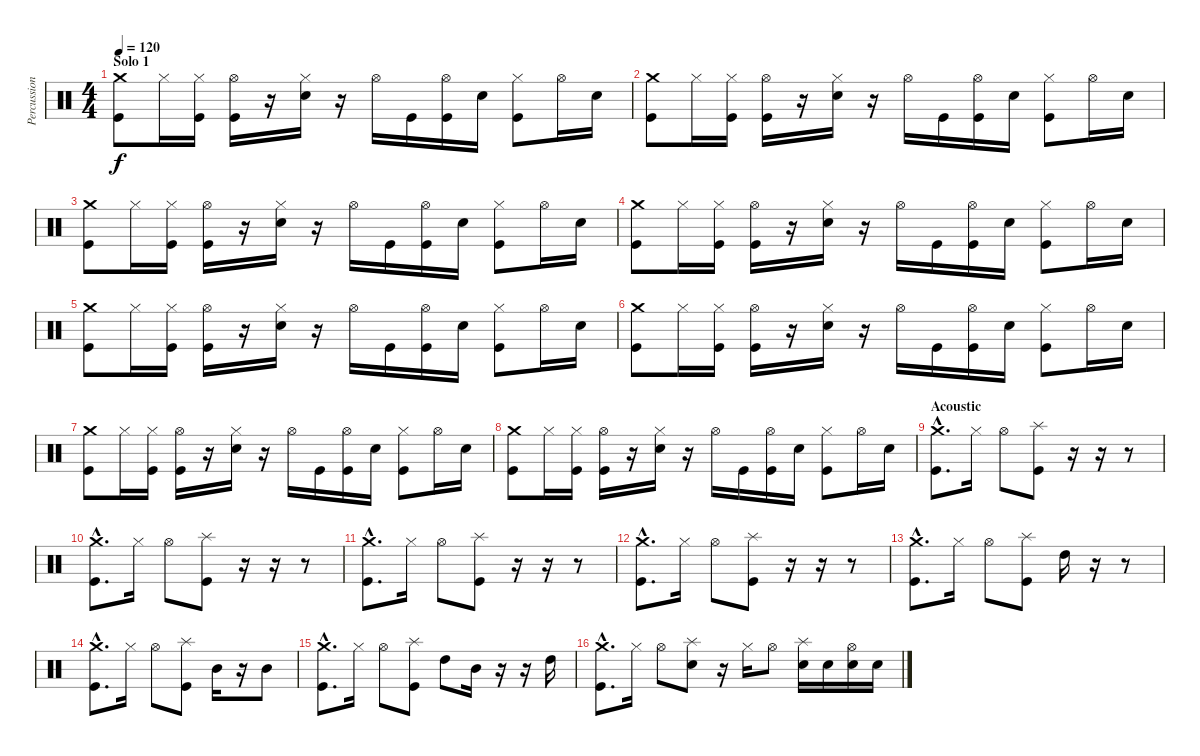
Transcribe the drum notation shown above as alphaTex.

\track ("Percussions" "Percussion") {instrument percussion}
\staff {score}
\articulation defaults
\ts (4 4)
\section ("" "Solo 1")
\tempo 120
\clef neutral
\ks c
("Crash medium (hit)" "Kick (hit)").8{dy f} "Hi-Hat (closed)".16 ("Hi-Hat (closed)" "Kick (hit)").16 ("Hi-Hat (open)" "Kick (hit)").16 r.16 ("Hi-Hat (closed)" "Electric Snare (hit)").16 r.16 "Hi-Hat (open)".16 "Kick (hit)".16 ("Hi-Hat (open)" "Kick (hit)").16 "Electric Snare (hit)".16 ("Hi-Hat (closed)" "Kick (hit)").8 "Hi-Hat (open)".16 "Electric Snare (hit)".16 |
("Crash medium (hit)" "Kick (hit)").8 "Hi-Hat (closed)".16 ("Hi-Hat (closed)" "Kick (hit)").16 ("Hi-Hat (open)" "Kick (hit)").16 r.16 ("Hi-Hat (closed)" "Electric Snare (hit)").16 r.16 "Hi-Hat (open)".16 "Kick (hit)".16 ("Hi-Hat (open)" "Kick (hit)").16 "Electric Snare (hit)".16 ("Hi-Hat (closed)" "Kick (hit)").8 "Hi-Hat (open)".16 "Electric Snare (hit)".16 |
("Crash medium (hit)" "Kick (hit)").8 "Hi-Hat (closed)".16 ("Hi-Hat (closed)" "Kick (hit)").16 ("Hi-Hat (open)" "Kick (hit)").16 r.16 ("Hi-Hat (closed)" "Electric Snare (hit)").16 r.16 "Hi-Hat (open)".16 "Kick (hit)".16 ("Hi-Hat (open)" "Kick (hit)").16 "Electric Snare (hit)".16 ("Hi-Hat (closed)" "Kick (hit)").8 "Hi-Hat (open)".16 "Electric Snare (hit)".16 |
("Crash medium (hit)" "Kick (hit)").8 "Hi-Hat (closed)".16 ("Hi-Hat (closed)" "Kick (hit)").16 ("Hi-Hat (open)" "Kick (hit)").16 r.16 ("Hi-Hat (closed)" "Electric Snare (hit)").16 r.16 "Hi-Hat (open)".16 "Kick (hit)".16 ("Hi-Hat (open)" "Kick (hit)").16 "Electric Snare (hit)".16 ("Hi-Hat (closed)" "Kick (hit)").8 "Hi-Hat (open)".16 "Electric Snare (hit)".16 |
("Crash medium (hit)" "Kick (hit)").8 "Hi-Hat (closed)".16 ("Hi-Hat (closed)" "Kick (hit)").16 ("Hi-Hat (open)" "Kick (hit)").16 r.16 ("Hi-Hat (closed)" "Electric Snare (hit)").16 r.16 "Hi-Hat (open)".16 "Kick (hit)".16 ("Hi-Hat (open)" "Kick (hit)").16 "Electric Snare (hit)".16 ("Hi-Hat (closed)" "Kick (hit)").8 "Hi-Hat (open)".16 "Electric Snare (hit)".16 |
("Crash medium (hit)" "Kick (hit)").8 "Hi-Hat (closed)".16 ("Hi-Hat (closed)" "Kick (hit)").16 ("Hi-Hat (open)" "Kick (hit)").16 r.16 ("Hi-Hat (closed)" "Electric Snare (hit)").16 r.16 "Hi-Hat (open)".16 "Kick (hit)".16 ("Hi-Hat (open)" "Kick (hit)").16 "Electric Snare (hit)".16 ("Hi-Hat (closed)" "Kick (hit)").8 "Hi-Hat (open)".16 "Electric Snare (hit)".16 |
("Crash medium (hit)" "Kick (hit)").8 "Hi-Hat (closed)".16 ("Hi-Hat (closed)" "Kick (hit)").16 ("Hi-Hat (open)" "Kick (hit)").16 r.16 ("Hi-Hat (closed)" "Electric Snare (hit)").16 r.16 "Hi-Hat (open)".16 "Kick (hit)".16 ("Hi-Hat (open)" "Kick (hit)").16 "Electric Snare (hit)".16 ("Hi-Hat (closed)" "Kick (hit)").8 "Hi-Hat (open)".16 "Electric Snare (hit)".16 |
("Crash medium (hit)" "Kick (hit)").8 "Hi-Hat (closed)".16 ("Hi-Hat (closed)" "Kick (hit)").16 ("Hi-Hat (open)" "Kick (hit)").16 r.16 ("Hi-Hat (closed)" "Electric Snare (hit)").16 r.16 "Hi-Hat (open)".16 "Kick (hit)".16 ("Hi-Hat (open)" "Kick (hit)").16 "Electric Snare (hit)".16 ("Hi-Hat (closed)" "Kick (hit)").8 "Hi-Hat (open)".16 "Electric Snare (hit)".16 |
\section ("" "Acoustic")
("Crash medium (hit)"{hac} "Kick (hit)"{hac}).8{d} "Hi-Hat (closed)".16 "Hi-Hat (open)".8 ("Splash (hit)" "Kick (hit)").8 r.16 r.16 r.8 |
("Crash medium (hit)"{hac} "Kick (hit)"{hac}).8{d} "Hi-Hat (closed)".16 "Hi-Hat (open)".8 ("Splash (hit)" "Kick (hit)").8 r.16 r.16 r.8 |
("Crash medium (hit)"{hac} "Kick (hit)"{hac}).8{d} "Hi-Hat (closed)".16 "Hi-Hat (open)".8 ("Splash (hit)" "Kick (hit)").8 r.16 r.16 r.8 |
("Crash medium (hit)"{hac} "Kick (hit)"{hac}).8{d} "Hi-Hat (closed)".16 "Hi-Hat (open)".8 ("Splash (hit)" "Kick (hit)").8 r.16 r.16 r.8 |
("Crash medium (hit)"{hac} "Kick (hit)"{hac}).8{d} "Hi-Hat (closed)".16 "Hi-Hat (open)".8 ("Splash (hit)" "Kick (hit)").8 "High Tom (hit)".16 r.16 r.8 |
("Crash medium (hit)"{hac} "Kick (hit)"{hac}).8{d} "Hi-Hat (closed)".16 "Hi-Hat (open)".8 ("Splash (hit)" "Kick (hit)").8 "Mid Tom (hit)".16 r.16 "Mid Tom (hit)".8 |
("Crash medium (hit)"{hac} "Kick (hit)"{hac}).8{d} "Hi-Hat (closed)".16 "Hi-Hat (open)".8 ("Splash (hit)" "Kick (hit)").8 "High Tom (hit)".8 "Mid Tom (hit)".16 r.16 r.16 "High Tom (hit)".16 |
("Crash medium (hit)"{hac} "Kick (hit)"{hac}).8{d} "Hi-Hat (closed)".16 "Hi-Hat (open)".8 ("Splash (hit)" "Electric Snare (hit)").8 r.16 "Hi-Hat (closed)".16 "Hi-Hat (open)".8 ("Splash (hit)" "Electric Snare (hit)").16 "Electric Snare (hit)".16 ("Hi-Hat (open)" "Electric Snare (hit)").16 "Electric Snare (hit)".16
